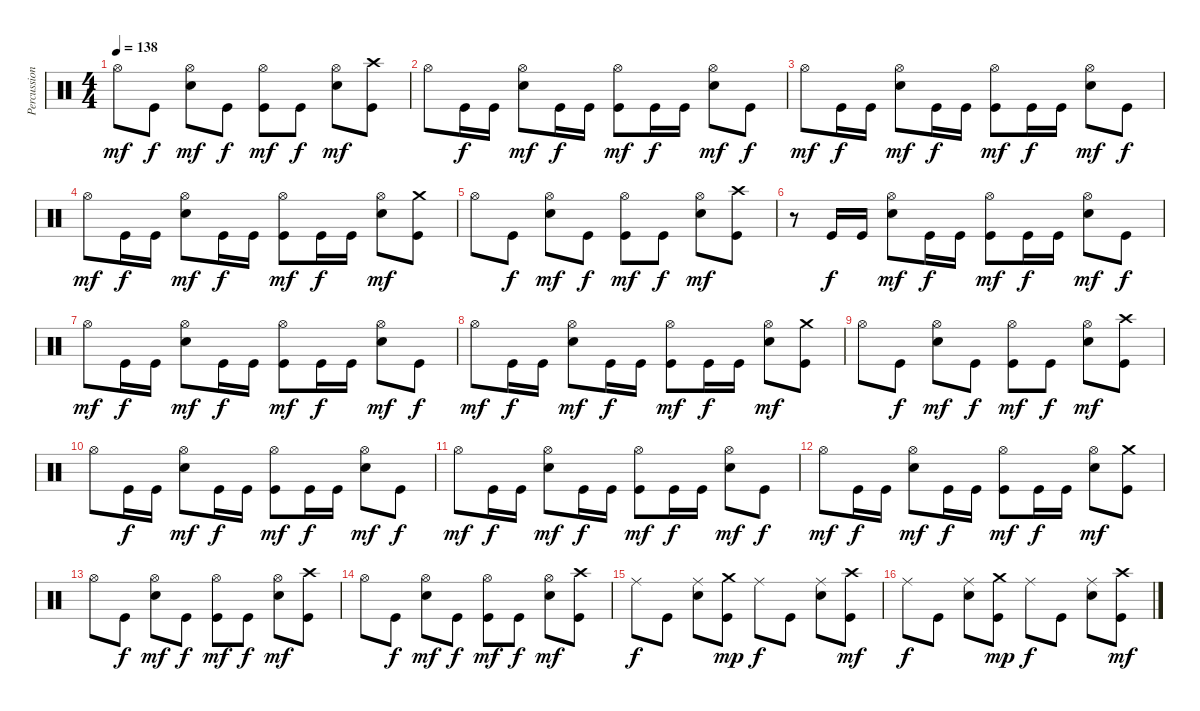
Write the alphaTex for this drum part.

\track ("Percussions" "Percussion") {instrument percussion}
\staff {score}
\articulation defaults
\ts (4 4)
\tempo 138
\clef neutral
\ks c "Hi-Hat (open)".8{dy mf} "Kick (hit)".8{dy f}
("Electric Snare (hit)" "Hi-Hat (open)").8{dy mf} "Kick (hit)".8{dy f} ("Kick (hit)" "Hi-Hat (open)").8{dy mf} "Kick (hit)".8{dy f} ("Electric Snare (hit)" "Hi-Hat (open)").8{dy mf} ("Kick (hit)" "Crash high (hit)").8 |
"Hi-Hat (open)".8 "Kick (hit)".16{dy f} "Kick (hit)".16 ("Electric Snare (hit)" "Hi-Hat (open)").8{dy mf} "Kick (hit)".16{dy f} "Kick (hit)".16 ("Kick (hit)" "Hi-Hat (open)").8{dy mf} "Kick (hit)".16{dy f} "Kick (hit)".16 ("Electric Snare (hit)" "Hi-Hat (open)").8{dy mf} "Kick (hit)".8{dy f} |
"Hi-Hat (open)".8{dy mf} "Kick (hit)".16{dy f} "Kick (hit)".16 ("Electric Snare (hit)" "Hi-Hat (open)").8{dy mf} "Kick (hit)".16{dy f} "Kick (hit)".16 ("Kick (hit)" "Hi-Hat (open)").8{dy mf} "Kick (hit)".16{dy f} "Kick (hit)".16 ("Electric Snare (hit)" "Hi-Hat (open)").8{dy mf} "Kick (hit)".8{dy f} |
"Hi-Hat (open)".8{dy mf} "Kick (hit)".16{dy f} "Kick (hit)".16 ("Electric Snare (hit)" "Hi-Hat (open)").8{dy mf} "Kick (hit)".16{dy f} "Kick (hit)".16 ("Kick (hit)" "Hi-Hat (open)").8{dy mf} "Kick (hit)".16{dy f} "Kick (hit)".16 ("Electric Snare (hit)" "Hi-Hat (open)").8{dy mf} ("Kick (hit)" "Crash medium (hit)").8 |
"Hi-Hat (open)".8 "Kick (hit)".8{dy f} ("Electric Snare (hit)" "Hi-Hat (open)").8{dy mf} "Kick (hit)".8{dy f} ("Kick (hit)" "Hi-Hat (open)").8{dy mf} "Kick (hit)".8{dy f} ("Electric Snare (hit)" "Hi-Hat (open)").8{dy mf} ("Kick (hit)" "Crash high (hit)").8 |
r.8 "Kick (hit)".16{dy f} "Kick (hit)".16 ("Electric Snare (hit)" "Hi-Hat (open)").8{dy mf} "Kick (hit)".16{dy f} "Kick (hit)".16 ("Kick (hit)" "Hi-Hat (open)").8{dy mf} "Kick (hit)".16{dy f} "Kick (hit)".16 ("Electric Snare (hit)" "Hi-Hat (open)").8{dy mf} "Kick (hit)".8{dy f} |
"Hi-Hat (open)".8{dy mf} "Kick (hit)".16{dy f} "Kick (hit)".16 ("Electric Snare (hit)" "Hi-Hat (open)").8{dy mf} "Kick (hit)".16{dy f} "Kick (hit)".16 ("Kick (hit)" "Hi-Hat (open)").8{dy mf} "Kick (hit)".16{dy f} "Kick (hit)".16 ("Electric Snare (hit)" "Hi-Hat (open)").8{dy mf} "Kick (hit)".8{dy f} |
"Hi-Hat (open)".8{dy mf} "Kick (hit)".16{dy f} "Kick (hit)".16 ("Electric Snare (hit)" "Hi-Hat (open)").8{dy mf} "Kick (hit)".16{dy f} "Kick (hit)".16 ("Kick (hit)" "Hi-Hat (open)").8{dy mf} "Kick (hit)".16{dy f} "Kick (hit)".16 ("Electric Snare (hit)" "Hi-Hat (open)").8{dy mf} ("Kick (hit)" "Crash medium (hit)").8 |
"Hi-Hat (open)".8 "Kick (hit)".8{dy f} ("Electric Snare (hit)" "Hi-Hat (open)").8{dy mf} "Kick (hit)".8{dy f} ("Kick (hit)" "Hi-Hat (open)").8{dy mf} "Kick (hit)".8{dy f} ("Electric Snare (hit)" "Hi-Hat (open)").8{dy mf} ("Kick (hit)" "Crash high (hit)").8 |
"Hi-Hat (open)".8 "Kick (hit)".16{dy f} "Kick (hit)".16 ("Electric Snare (hit)" "Hi-Hat (open)").8{dy mf} "Kick (hit)".16{dy f} "Kick (hit)".16 ("Kick (hit)" "Hi-Hat (open)").8{dy mf} "Kick (hit)".16{dy f} "Kick (hit)".16 ("Electric Snare (hit)" "Hi-Hat (open)").8{dy mf} "Kick (hit)".8{dy f} |
"Hi-Hat (open)".8{dy mf} "Kick (hit)".16{dy f} "Kick (hit)".16 ("Electric Snare (hit)" "Hi-Hat (open)").8{dy mf} "Kick (hit)".16{dy f} "Kick (hit)".16 ("Kick (hit)" "Hi-Hat (open)").8{dy mf} "Kick (hit)".16{dy f} "Kick (hit)".16 ("Electric Snare (hit)" "Hi-Hat (open)").8{dy mf} "Kick (hit)".8{dy f} |
"Hi-Hat (open)".8{dy mf} "Kick (hit)".16{dy f} "Kick (hit)".16 ("Electric Snare (hit)" "Hi-Hat (open)").8{dy mf} "Kick (hit)".16{dy f} "Kick (hit)".16 ("Kick (hit)" "Hi-Hat (open)").8{dy mf} "Kick (hit)".16{dy f} "Kick (hit)".16 ("Electric Snare (hit)" "Hi-Hat (open)").8{dy mf} ("Kick (hit)" "Crash medium (hit)").8 |
"Hi-Hat (open)".8 "Kick (hit)".8{dy f} ("Electric Snare (hit)" "Hi-Hat (open)").8{dy mf} "Kick (hit)".8{dy f} ("Kick (hit)" "Hi-Hat (open)").8{dy mf} "Kick (hit)".8{dy f} ("Electric Snare (hit)" "Hi-Hat (open)").8{dy mf} ("Kick (hit)" "Crash high (hit)").8 |
"Hi-Hat (open)".8 "Kick (hit)".8{dy f} ("Electric Snare (hit)" "Hi-Hat (open)").8{dy mf} "Kick (hit)".8{dy f} ("Kick (hit)" "Hi-Hat (open)").8{dy mf} "Kick (hit)".8{dy f} ("Electric Snare (hit)" "Hi-Hat (open)").8{dy mf} ("Kick (hit)" "Crash high (hit)").8 |
"Ride (middle)".8{dy f} "Kick (hit)".8 ("Electric Snare (hit)" "Ride (middle)").8 ("Kick (hit)" "Crash medium (hit)").8{dy mp} "Ride (middle)".8{dy f} "Kick (hit)".8 ("Electric Snare (hit)" "Ride (middle)").8 ("Kick (hit)" "Crash high (hit)").8{dy mf} |
"Ride (middle)".8{dy f} "Kick (hit)".8 ("Electric Snare (hit)" "Ride (middle)").8 ("Kick (hit)" "Crash medium (hit)").8{dy mp} "Ride (middle)".8{dy f} "Kick (hit)".8 ("Electric Snare (hit)" "Ride (middle)").8 ("Kick (hit)" "Crash high (hit)").8{dy mf}
